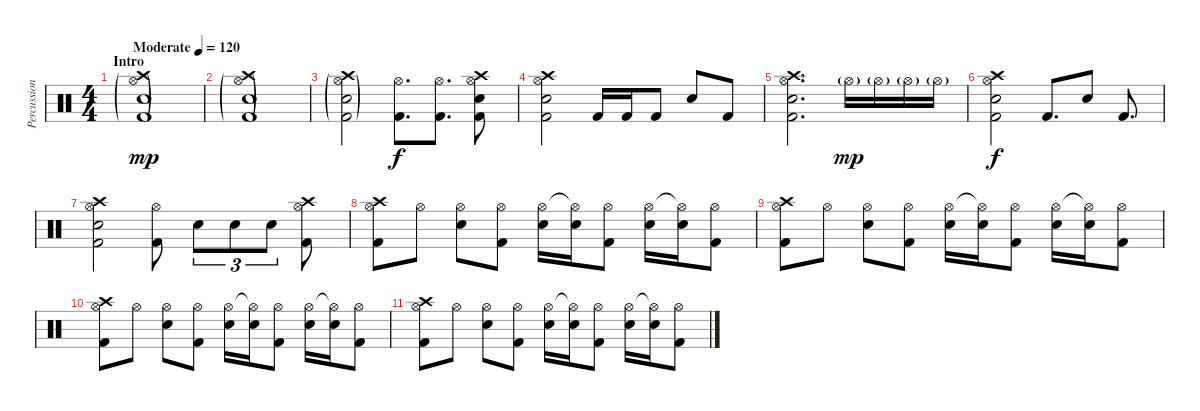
\track ("Percussion" "Percussion") {instrument percussion}
\staff {score}
\articulation defaults
\ts (4 4)
\section ("" "Intro")
\tempo (120 "Moderate")
\clef neutral
\ks c
("Hi-Hat (open)"{g} "Crash high (hit)"{g} "Kick (hit) 2"{g} "Snare (hit) 2"{g}).1{dy mp} |
("Hi-Hat (open)"{g} "Crash high (hit)"{g} "Kick (hit) 2"{g} "Snare (hit) 2"{g}).1 |
("Hi-Hat (open)"{g} "Crash high (hit)"{g} "Kick (hit) 2"{g} "Snare (hit) 2"{g}).2 ("Hi-Hat (open)" "Kick (hit) 2").8{d dy f} ("Hi-Hat (open)" "Kick (hit) 2").8{d} ("Hi-Hat (open)" "Crash high (hit)" "Snare (hit) 2" "Kick (hit) 2").8 |
("Hi-Hat (open)" "Crash high (hit)" "Kick (hit) 2" "Snare (hit) 2").2 "Kick (hit) 2".16 "Kick (hit) 2".16 "Kick (hit) 2".8 "Snare (hit) 2".8 "Kick (hit) 2".8 |
("Hi-Hat (open)" "Crash high (hit)" "Kick (hit) 2" "Snare (hit) 2").2{d} "Hi-Hat (open)"{g}.16{dy mp} "Hi-Hat (open)"{g}.16 "Hi-Hat (open)"{g}.16 "Hi-Hat (open)"{g}.16 |
("Hi-Hat (open)" "Crash high (hit)" "Kick (hit) 2" "Snare (hit) 2").2{dy f} "Kick (hit) 2".8{d} "Snare (hit) 2".8 "Kick (hit) 2".8{d} |
("Hi-Hat (open)" "Crash high (hit)" "Kick (hit) 2" "Snare (hit) 2").2 ("Hi-Hat (open)" "Kick (hit) 2").8 "Snare (hit) 2".8{tu (3 2)} "Snare (hit) 2".8{tu (3 2)} "Snare (hit) 2".8{tu (3 2)} ("Hi-Hat (open)" "Crash high (hit)" "Kick (hit) 2").8 |
("Hi-Hat (open)" "Crash high (hit)" "Kick (hit) 2").8 "Hi-Hat (open)".8 ("Hi-Hat (open)" "Snare (hit) 2").8 ("Hi-Hat (open)" "Kick (hit) 2").8 ("Hi-Hat (open)" "Snare (hit) 2").16 ("Hi-Hat (open)"{t} "Snare (hit) 2").16 ("Hi-Hat (open)" "Kick (hit) 2").8 ("Hi-Hat (open)" "Snare (hit) 2").16 ("Hi-Hat (open)"{t} "Snare (hit) 2").16 ("Hi-Hat (open)" "Kick (hit) 2").8 |
("Hi-Hat (open)" "Crash high (hit)" "Kick (hit) 2").8 "Hi-Hat (open)".8 ("Hi-Hat (open)" "Snare (hit) 2").8 ("Hi-Hat (open)" "Kick (hit) 2").8 ("Hi-Hat (open)" "Snare (hit) 2").16 ("Hi-Hat (open)"{t} "Snare (hit) 2").16 ("Hi-Hat (open)" "Kick (hit) 2").8 ("Hi-Hat (open)" "Snare (hit) 2").16 ("Hi-Hat (open)"{t} "Snare (hit) 2").16 ("Hi-Hat (open)" "Kick (hit) 2").8 |
("Hi-Hat (open)" "Crash high (hit)" "Kick (hit) 2").8 "Hi-Hat (open)".8 ("Hi-Hat (open)" "Snare (hit) 2").8 ("Hi-Hat (open)" "Kick (hit) 2").8 ("Hi-Hat (open)" "Snare (hit) 2").16 ("Hi-Hat (open)"{t} "Snare (hit) 2").16 ("Hi-Hat (open)" "Kick (hit) 2").8 ("Hi-Hat (open)" "Snare (hit) 2").16 ("Hi-Hat (open)"{t} "Snare (hit) 2").16 ("Hi-Hat (open)" "Kick (hit) 2").8 |
("Hi-Hat (open)" "Crash high (hit)" "Kick (hit) 2").8 "Hi-Hat (open)".8 ("Hi-Hat (open)" "Snare (hit) 2").8 ("Hi-Hat (open)" "Kick (hit) 2").8 ("Hi-Hat (open)" "Snare (hit) 2").16 ("Hi-Hat (open)"{t} "Snare (hit) 2").16 ("Hi-Hat (open)" "Kick (hit) 2").8 ("Hi-Hat (open)" "Snare (hit) 2").16 ("Hi-Hat (open)"{t} "Snare (hit) 2").16 ("Hi-Hat (open)" "Kick (hit) 2").8
